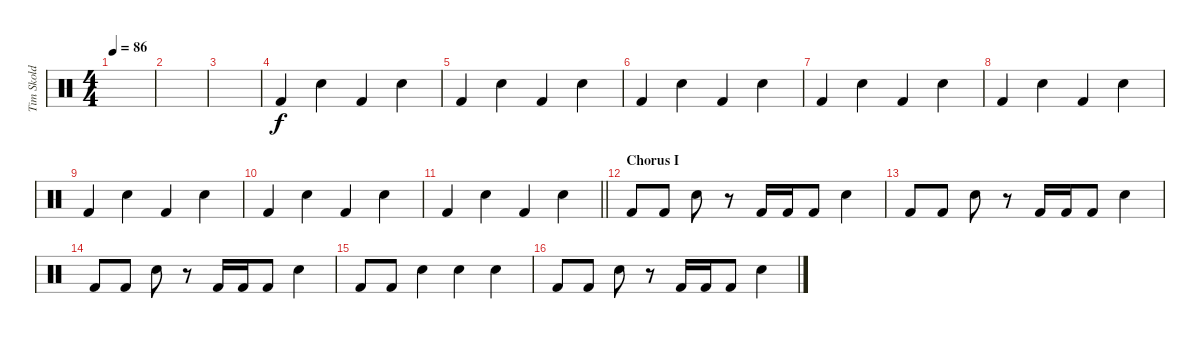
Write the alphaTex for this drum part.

\track ("Tim Skold V" "Tim Skold ") {instrument percussion}
\staff {score}
\articulation defaults
\ts (4 4)
\tempo 86
\clef neutral
\ks c
|
|
|
"Kick (hit) 2".4 "Electric Snare (hit)".4 "Kick (hit) 2".4 "Electric Snare (hit)".4 |
"Kick (hit) 2".4 "Electric Snare (hit)".4 "Kick (hit) 2".4 "Electric Snare (hit)".4 |
"Kick (hit) 2".4 "Electric Snare (hit)".4 "Kick (hit) 2".4 "Electric Snare (hit)".4 |
"Kick (hit) 2".4 "Electric Snare (hit)".4 "Kick (hit) 2".4 "Electric Snare (hit)".4 |
"Kick (hit) 2".4 "Electric Snare (hit)".4 "Kick (hit) 2".4 "Electric Snare (hit)".4 |
"Kick (hit) 2".4 "Electric Snare (hit)".4 "Kick (hit) 2".4 "Electric Snare (hit)".4 |
"Kick (hit) 2".4 "Electric Snare (hit)".4 "Kick (hit) 2".4 "Electric Snare (hit)".4 |
\barLineRight lightlight "Kick (hit) 2".4 "Electric Snare (hit)".4 "Kick (hit) 2".4 "Electric Snare (hit)".4
|
\section ("" "Chorus I")
"Kick (hit) 2".8 "Kick (hit) 2".8 "Electric Snare (hit)".8 r.8 "Kick (hit) 2".16 "Kick (hit) 2".16 "Kick (hit) 2".8 "Electric Snare (hit)".4 |
"Kick (hit) 2".8 "Kick (hit) 2".8 "Electric Snare (hit)".8 r.8 "Kick (hit) 2".16 "Kick (hit) 2".16 "Kick (hit) 2".8 "Electric Snare (hit)".4 |
"Kick (hit) 2".8 "Kick (hit) 2".8 "Electric Snare (hit)".8 r.8 "Kick (hit) 2".16 "Kick (hit) 2".16 "Kick (hit) 2".8 "Electric Snare (hit)".4 |
"Kick (hit) 2".8 "Kick (hit) 2".8 "Electric Snare (hit)".4 "Electric Snare (hit)".4 "Electric Snare (hit)".4 |
"Kick (hit) 2".8 "Kick (hit) 2".8 "Electric Snare (hit)".8 r.8 "Kick (hit) 2".16 "Kick (hit) 2".16 "Kick (hit) 2".8 "Electric Snare (hit)".4
